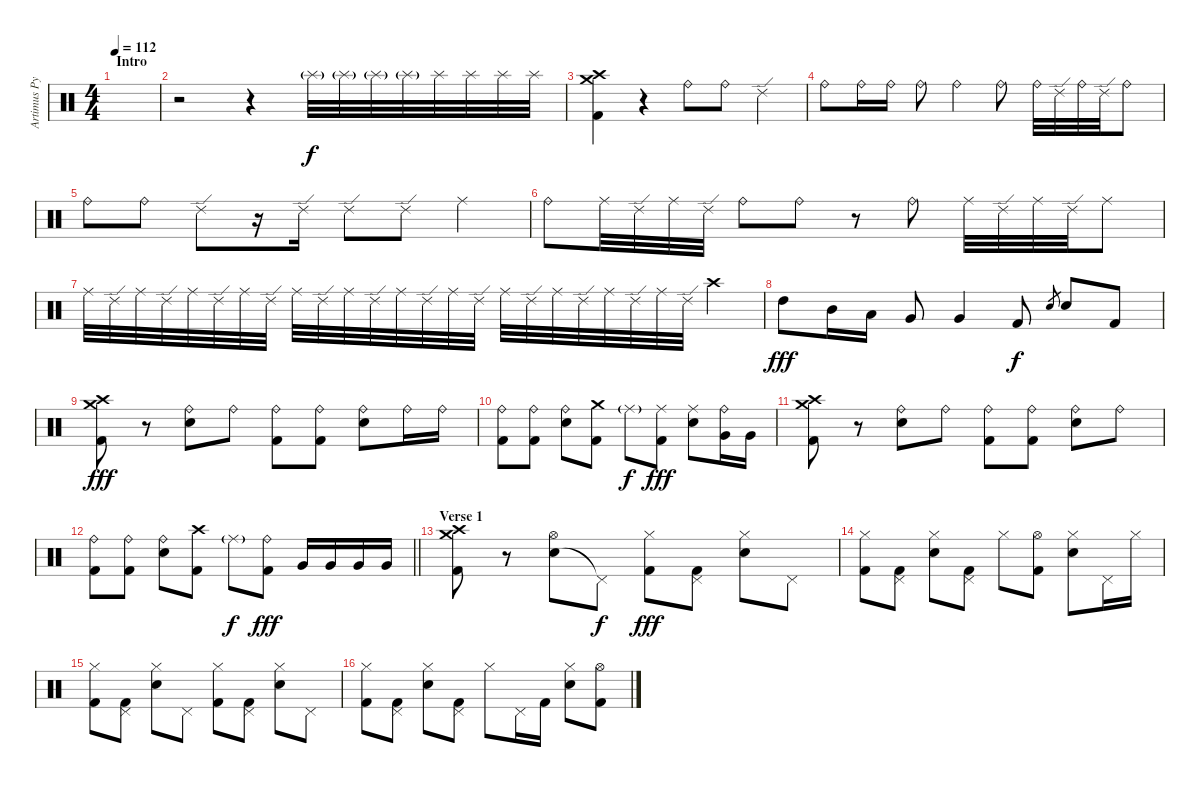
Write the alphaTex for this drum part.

\track ("Artimus Pyle" "Artimus Py") {instrument percussion}
\staff {score}
\articulation defaults
\ts (4 4)
\section ("" "Intro")
\tempo 112
\clef neutral
\ks c
|
r.2 r.4 "Splash (hit)"{g}.32 "Splash (hit)"{g}.32 "Splash (hit)"{g}.32 "Splash (hit)"{g}.32 "Splash (hit)".32{dy f} "Splash (hit)".32 "Splash (hit)".32 "Splash (hit)".32 |
("Crash medium (hit)" "Crash high (hit)" "Kick (hit) 2").4 r.4 "Ride (bell)".8 "Ride (bell)".8 "Ride (edge) 2".4 |
"Ride (bell)".8 "Ride (bell)".16 "Ride (bell)".16 "Ride (bell)".8 "Ride (bell)".4 "Ride (bell)".8 "Ride (bell)".32 "Ride (edge) 2".32 "Ride (bell)".32 "Ride (edge) 2".32 "Ride (bell)".8 |
"Ride (bell)".8 "Ride (bell)".8 "Ride (edge) 2".8 r.16 "Ride (edge) 2".16 "Ride (edge) 2".8 "Ride (edge) 2".8 "Ride (middle)".4 |
"Ride (bell)".8 "Ride (middle)".32 "Ride (edge) 2".32 "Ride (middle)".32 "Ride (edge) 2".32 "Ride (bell)".8 "Ride (bell)".8 r.8 "Ride (bell)".8 "Ride (middle)".32 "Ride (edge) 2".32 "Ride (middle)".32 "Ride (edge) 2".32 "Ride (middle)".8 |
"Ride (middle)".32 "Ride (edge) 2".32 "Ride (middle)".32 "Ride (edge) 2".32 "Ride (middle)".32 "Ride (edge) 2".32 "Ride (middle)".32 "Ride (edge) 2".32 "Ride (middle)".32 "Ride (edge) 2".32 "Ride (middle)".32 "Ride (edge) 2".32 "Ride (middle)".32 "Ride (edge) 2".32 "Ride (middle)".32 "Ride (edge) 2".32 "Ride (middle)".32 "Ride (edge) 2".32 "Ride (middle)".32 "Ride (edge) 2".32 "Ride (middle)".32 "Ride (edge) 2".32 "Ride (middle)".32 "Ride (edge) 2".32 "Crash high (hit)".4 |
"High Tom (hit)".8{dy fff} "Mid Tom (hit)".16 "Low Tom (hit)".16 "Very Low Tom (hit)".8 "Very Low Tom (hit)".4 "Kick (hit) 2".8{dy f} "Snare (hit) 2".8{gr} "Snare (hit) 2".8 "Kick (hit) 2".8 |
("Crash medium (hit)" "Crash high (hit)" "Kick (hit) 2").8{dy fff} r.8 ("Ride (bell)" "Snare (hit) 2").8 "Ride (bell)".8 ("Ride (bell)" "Kick (hit) 2").8 ("Ride (bell)" "Kick (hit) 2").8 ("Ride (bell)" "Snare (hit) 2").8 "Ride (bell)".16 "Ride (bell)".16 |
("Ride (bell)" "Kick (hit) 2").8 ("Ride (bell)" "Kick (hit) 2").8 ("Ride (bell)" "Snare (hit) 2").8 ("Crash medium (hit)" "Kick (hit) 2").8 "Ride (middle)"{g}.8{dy f} ("Ride (middle)" "Kick (hit) 2").8{dy fff} ("Ride (middle)" "Snare (hit) 2").8 ("Ride (bell)" "Very Low Tom (hit)").16 "Very Low Tom (hit)".16 |
("Crash medium (hit)" "Crash high (hit)" "Kick (hit) 2").8 r.8 ("Ride (bell)" "Snare (hit) 2").8 "Ride (bell)".8 ("Ride (bell)" "Kick (hit) 2").8 ("Ride (bell)" "Kick (hit) 2").8 ("Ride (bell)" "Snare (hit) 2").8 "Ride (bell)".8 |
\barLineRight lightlight
("Ride (bell)" "Kick (hit) 2").8 ("Ride (bell)" "Kick (hit) 2").8 ("Ride (bell)" "Snare (hit) 2").8 ("Crash high (hit)" "Kick (hit) 2").8 "Ride (middle)"{g}.8{dy f} ("Ride (bell)" "Kick (hit) 2").8{dy fff} "Very Low Tom (hit)".16 "Very Low Tom (hit)".16 "Very Low Tom (hit)".16 "Very Low Tom (hit)".16 |
\section ("" "Verse 1")
("Crash high (hit)" "Crash medium (hit)" "Kick (hit) 2").8 r.8 ("Snare (hit) 2" "Hi-Hat (open)").8 "Pedal Hi-Hat (hit)"{t}.8{dy f} ("Hi-Hat (closed)" "Kick (hit) 2").8{dy fff} ("Pedal Hi-Hat (hit)" "Kick (hit) 2").8 ("Snare (hit) 2" "Hi-Hat (closed)").8 "Pedal Hi-Hat (hit)".8 |
("Hi-Hat (closed)" "Kick (hit) 2").8 ("Pedal Hi-Hat (hit)" "Kick (hit) 2").8 ("Snare (hit) 2" "Hi-Hat (closed)").8 ("Pedal Hi-Hat (hit)" "Kick (hit) 2").8 "Hi-Hat (closed)".8 ("Hi-Hat (open)" "Kick (hit) 2").8 ("Snare (hit) 2" "Hi-Hat (closed)").8 "Pedal Hi-Hat (hit)".16 "Hi-Hat (closed)".16 |
("Hi-Hat (closed)" "Kick (hit) 2").8 ("Pedal Hi-Hat (hit)" "Kick (hit) 2").8 ("Snare (hit) 2" "Hi-Hat (closed)").8 "Pedal Hi-Hat (hit)".8 ("Hi-Hat (closed)" "Kick (hit) 2").8 ("Pedal Hi-Hat (hit)" "Kick (hit) 2").8 ("Snare (hit) 2" "Hi-Hat (closed)").8 "Pedal Hi-Hat (hit)".8 |
("Hi-Hat (closed)" "Kick (hit) 2").8 ("Pedal Hi-Hat (hit)" "Kick (hit) 2").8 ("Snare (hit) 2" "Hi-Hat (closed)").8 ("Pedal Hi-Hat (hit)" "Kick (hit) 2").8 "Hi-Hat (closed)".8 "Pedal Hi-Hat (hit)".16 "Kick (hit) 2".16 ("Snare (hit) 2" "Hi-Hat (closed)").8 ("Hi-Hat (open)" "Kick (hit) 2").8
